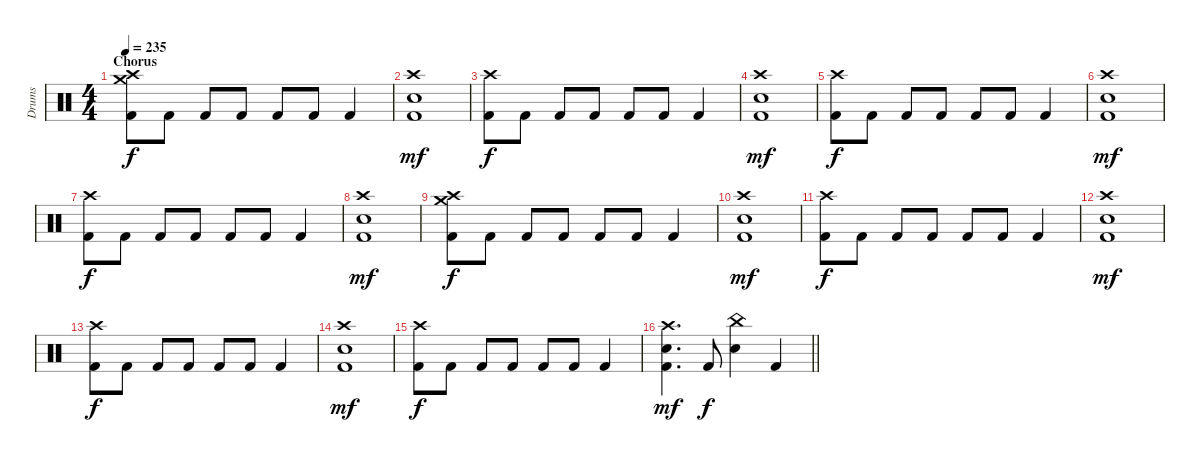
\track ("Drums" "Drums") {instrument percussion}
\staff {score}
\articulation defaults
\ts (4 4)
\section ("" "Chorus")
\tempo 235
\clef neutral
\ks c
("Crash medium (hit)" "Crash high (hit)" "Kick (hit) 2").8{dy f} "Kick (hit) 2".8 "Kick (hit) 2".8 "Kick (hit) 2".8 "Kick (hit) 2".8 "Kick (hit) 2".8 "Kick (hit) 2".4 |
("Crash high (hit)" "Electric Snare (hit)" "Kick (hit) 2").1{dy mf} |
("Crash high (hit)" "Kick (hit) 2").8{dy f} "Kick (hit) 2".8 "Kick (hit) 2".8 "Kick (hit) 2".8 "Kick (hit) 2".8 "Kick (hit) 2".8 "Kick (hit) 2".4 |
("Crash high (hit)" "Electric Snare (hit)" "Kick (hit) 2").1{dy mf} |
("Crash high (hit)" "Kick (hit) 2").8{dy f} "Kick (hit) 2".8 "Kick (hit) 2".8 "Kick (hit) 2".8 "Kick (hit) 2".8 "Kick (hit) 2".8 "Kick (hit) 2".4 |
("Crash high (hit)" "Electric Snare (hit)" "Kick (hit) 2").1{dy mf} |
("Crash high (hit)" "Kick (hit) 2").8{dy f} "Kick (hit) 2".8 "Kick (hit) 2".8 "Kick (hit) 2".8 "Kick (hit) 2".8 "Kick (hit) 2".8 "Kick (hit) 2".4 |
("Crash high (hit)" "Electric Snare (hit)" "Kick (hit) 2").1{dy mf} |
("Crash medium (hit)" "Crash high (hit)" "Kick (hit) 2").8{dy f} "Kick (hit) 2".8 "Kick (hit) 2".8 "Kick (hit) 2".8 "Kick (hit) 2".8 "Kick (hit) 2".8 "Kick (hit) 2".4 |
("Crash high (hit)" "Electric Snare (hit)" "Kick (hit) 2").1{dy mf} |
("Crash high (hit)" "Kick (hit) 2").8{dy f} "Kick (hit) 2".8 "Kick (hit) 2".8 "Kick (hit) 2".8 "Kick (hit) 2".8 "Kick (hit) 2".8 "Kick (hit) 2".4 |
("Crash high (hit)" "Electric Snare (hit)" "Kick (hit) 2").1{dy mf} |
("Crash high (hit)" "Kick (hit) 2").8{dy f} "Kick (hit) 2".8 "Kick (hit) 2".8 "Kick (hit) 2".8 "Kick (hit) 2".8 "Kick (hit) 2".8 "Kick (hit) 2".4 |
("Crash high (hit)" "Electric Snare (hit)" "Kick (hit) 2").1{dy mf} |
("Crash high (hit)" "Kick (hit) 2").8{dy f} "Kick (hit) 2".8 "Kick (hit) 2".8 "Kick (hit) 2".8 "Kick (hit) 2".8 "Kick (hit) 2".8 "Kick (hit) 2".4 |
\barLineRight lightlight
("Crash high (hit)" "Electric Snare (hit)" "Kick (hit) 2").4{d dy mf} "Kick (hit) 2".8{dy f} ("China (hit)" "Electric Snare (hit)").4 "Kick (hit) 2".4
